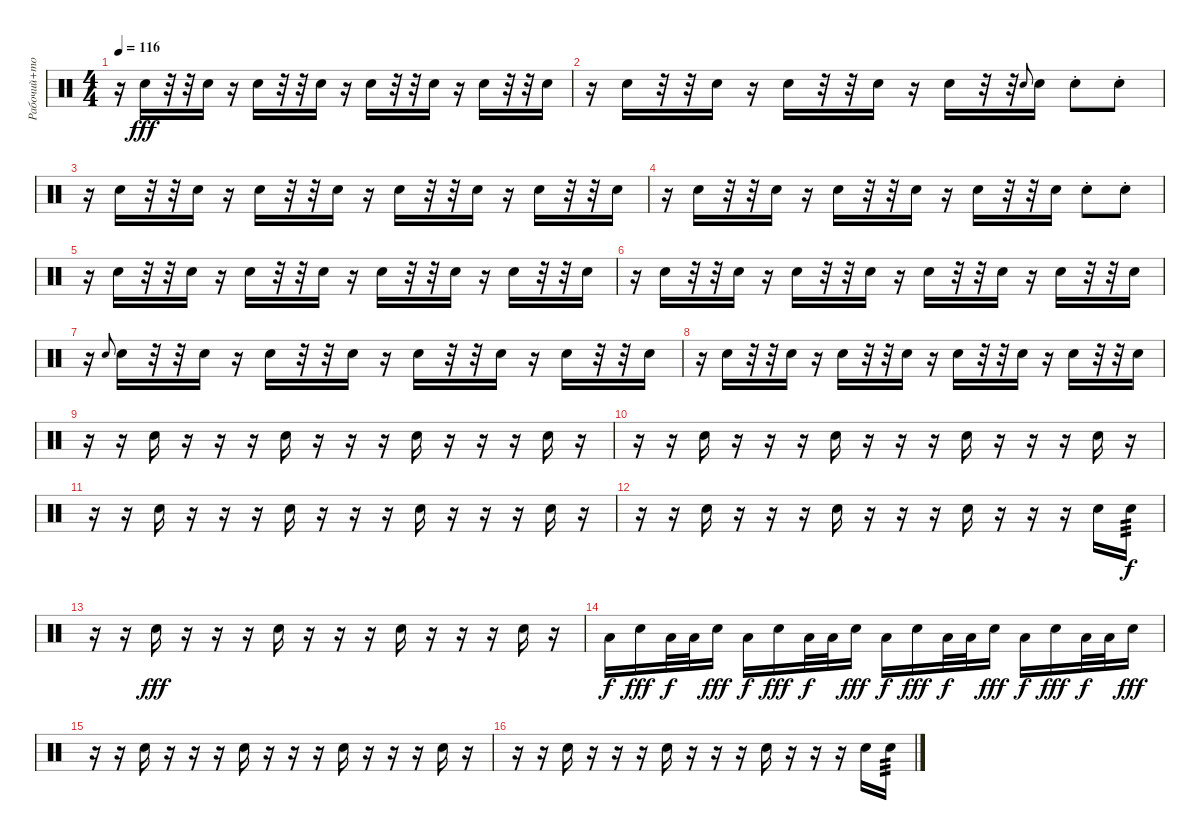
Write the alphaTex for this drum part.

\track ("Рабочий+томы" "Рабочий+то") {instrument percussion}
\staff {score}
\articulation defaults
\ts (4 4)
\tempo 116
\clef neutral
\ks c
r.16{dy fff} "Snare (hit) 2".16 r.32 r.32 "Snare (hit) 2".16 r.16 "Snare (hit) 2".16 r.32 r.32 "Snare (hit) 2".16 r.16 "Snare (hit) 2".16 r.32 r.32 "Snare (hit) 2".16 r.16 "Snare (hit) 2".16 r.32 r.32 "Snare (hit) 2".16 |
r.16 "Snare (hit) 2".16 r.32 r.32 "Snare (hit) 2".16 r.16 "Snare (hit) 2".16 r.32 r.32 "Snare (hit) 2".16 r.16 "Snare (hit) 2".16 r.32 r.32 "Snare (hit) 2".8{gr onbeat} "Snare (hit) 2".16 "Snare (hit) 2"{st}.8 "Snare (hit) 2"{st}.8 |
r.16 "Snare (hit) 2".16 r.32 r.32 "Snare (hit) 2".16 r.16 "Snare (hit) 2".16 r.32 r.32 "Snare (hit) 2".16 r.16 "Snare (hit) 2".16 r.32 r.32 "Snare (hit) 2".16 r.16 "Snare (hit) 2".16 r.32 r.32 "Snare (hit) 2".16 |
r.16 "Snare (hit) 2".16 r.32 r.32 "Snare (hit) 2".16 r.16 "Snare (hit) 2".16 r.32 r.32 "Snare (hit) 2".16 r.16 "Snare (hit) 2".16 r.32 r.32 "Snare (hit) 2".16 "Snare (hit) 2"{st}.8 "Snare (hit) 2"{st}.8 |
r.16 "Snare (hit) 2".16 r.32 r.32 "Snare (hit) 2".16 r.16 "Snare (hit) 2".16 r.32 r.32 "Snare (hit) 2".16 r.16 "Snare (hit) 2".16 r.32 r.32 "Snare (hit) 2".16 r.16 "Snare (hit) 2".16 r.32 r.32 "Snare (hit) 2".16 |
r.16 "Snare (hit) 2".16 r.32 r.32 "Snare (hit) 2".16 r.16 "Snare (hit) 2".16 r.32 r.32 "Snare (hit) 2".16 r.16 "Snare (hit) 2".16 r.32 r.32 "Snare (hit) 2".16 r.16 "Snare (hit) 2".16 r.32 r.32 "Snare (hit) 2".16 |
r.16 "Snare (hit) 2".8{gr onbeat} "Snare (hit) 2".16 r.32 r.32 "Snare (hit) 2".16 r.16 "Snare (hit) 2".16 r.32 r.32 "Snare (hit) 2".16 r.16 "Snare (hit) 2".16 r.32 r.32 "Snare (hit) 2".16 r.16 "Snare (hit) 2".16 r.32 r.32 "Snare (hit) 2".16 |
r.16 "Snare (hit) 2".16 r.32 r.32 "Snare (hit) 2".16 r.16 "Snare (hit) 2".16 r.32 r.32 "Snare (hit) 2".16 r.16 "Snare (hit) 2".16 r.32 r.32 "Snare (hit) 2".16 r.16 "Snare (hit) 2".16 r.32 r.32 "Snare (hit) 2".16 |
r.16 r.16 "Snare (hit) 2".16 r.16 r.16 r.16 "Snare (hit) 2".16 r.16 r.16 r.16 "Snare (hit) 2".16 r.16 r.16 r.16 "Snare (hit) 2".16 r.16 |
r.16 r.16 "Snare (hit) 2".16 r.16 r.16 r.16 "Snare (hit) 2".16 r.16 r.16 r.16 "Snare (hit) 2".16 r.16 r.16 r.16 "Snare (hit) 2".16 r.16 |
r.16 r.16 "Snare (hit) 2".16 r.16 r.16 r.16 "Snare (hit) 2".16 r.16 r.16 r.16 "Snare (hit) 2".16 r.16 r.16 r.16 "Snare (hit) 2".16 r.16 |
r.16 r.16 "Snare (hit) 2".16 r.16 r.16 r.16 "Snare (hit) 2".16 r.16 r.16 r.16 "Snare (hit) 2".16 r.16 r.16 r.16 "Snare (hit) 2".16 "Snare (hit) 2".16{tp 3 dy f} |
r.16 r.16 "Snare (hit) 2".16{dy fff} r.16 r.16 r.16 "Snare (hit) 2".16 r.16 r.16 r.16 "Snare (hit) 2".16 r.16 r.16 r.16 "Snare (hit) 2".16 r.16 |
"Low Floor Tom (hit)".16{dy f} "Snare (hit) 2".16{dy fff} "Low Floor Tom (hit)".32{dy f} "Low Floor Tom (hit)".32 "Snare (hit) 2".16{dy fff} "Low Floor Tom (hit)".16{dy f} "Snare (hit) 2".16{dy fff} "Low Floor Tom (hit)".32{dy f} "Low Floor Tom (hit)".32 "Snare (hit) 2".16{dy fff} "Low Floor Tom (hit)".16{dy f} "Snare (hit) 2".16{dy fff} "Low Floor Tom (hit)".32{dy f} "Low Floor Tom (hit)".32 "Snare (hit) 2".16{dy fff} "Low Floor Tom (hit)".16{dy f} "Snare (hit) 2".16{dy fff} "Low Floor Tom (hit)".32{dy f} "Low Floor Tom (hit)".32 "Snare (hit) 2".16{dy fff} |
r.16 r.16 "Snare (hit) 2".16 r.16 r.16 r.16 "Snare (hit) 2".16 r.16 r.16 r.16 "Snare (hit) 2".16 r.16 r.16 r.16 "Snare (hit) 2".16 r.16 |
r.16 r.16 "Snare (hit) 2".16 r.16 r.16 r.16 "Snare (hit) 2".16 r.16 r.16 r.16 "Snare (hit) 2".16 r.16 r.16 r.16 "Snare (hit) 2".16 "Snare (hit) 2".16{tp 3}
